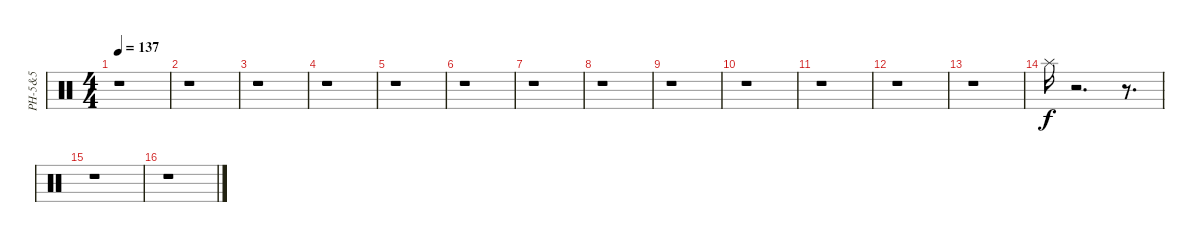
\track ("PH-5&5" "PH-5&5") {instrument percussion}
\staff {score}
\articulation defaults
\ts (4 4)
\tempo 137
\clef neutral
\ks c
r.1{dy f} |
r.1 |
r.1 |
r.1 |
r.1 |
r.1 |
r.1 |
r.1 |
r.1 |
r.1 |
r.1 |
r.1 |
r.1 |
"Splash (hit)".16 r.2{d} r.8{d} |
r.1 |
r.1
